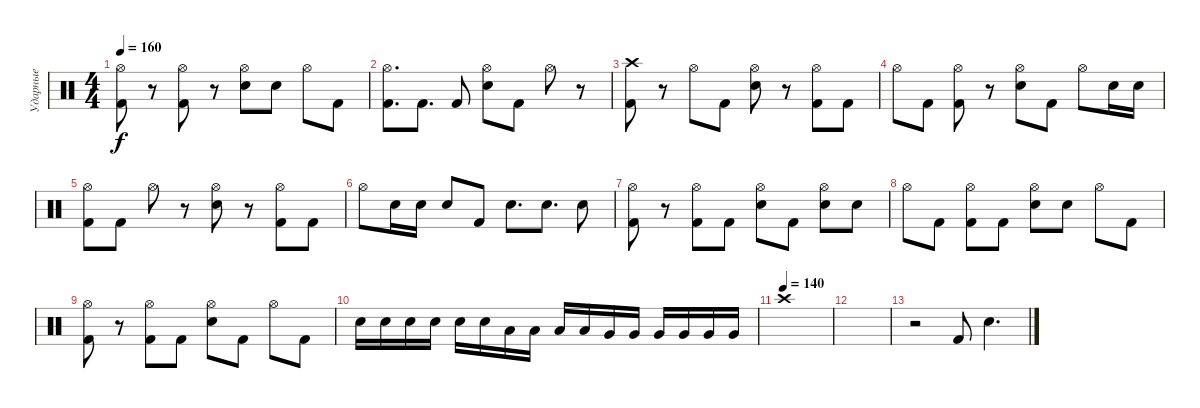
\track ("Ударные" "Ударные") {instrument percussion}
\staff {score}
\articulation defaults
\ts (4 4)
\tempo 160
\clef neutral
\ks c
("Hi-Hat (open)" "Kick (hit) 2").8{dy f} r.8 ("Hi-Hat (open)" "Kick (hit) 2").8 r.8 ("Hi-Hat (open)" "Electric Snare (hit)").8 "Electric Snare (hit)".8 "Hi-Hat (open)".8 "Kick (hit) 2".8 |
("Hi-Hat (open)" "Kick (hit) 2").8{d} "Kick (hit) 2".8{d} "Kick (hit) 2".8 ("Hi-Hat (open)" "Electric Snare (hit)").8 "Kick (hit) 2".8 "Hi-Hat (open)".8 r.8 |
("Crash high (hit)" "Kick (hit) 2").8 r.8 "Hi-Hat (open)".8 "Kick (hit) 2".8 ("Hi-Hat (open)" "Electric Snare (hit)").8 r.8 ("Hi-Hat (open)" "Kick (hit) 2").8 "Kick (hit) 2".8 |
"Hi-Hat (open)".8 "Kick (hit) 2".8 ("Hi-Hat (open)" "Kick (hit) 2").8 r.8 ("Hi-Hat (open)" "Electric Snare (hit)").8 "Kick (hit) 2".8 "Hi-Hat (open)".8 "Electric Snare (hit)".16 "Electric Snare (hit)".16 |
("Hi-Hat (open)" "Kick (hit) 2").8 "Kick (hit) 2".8 "Hi-Hat (open)".8 r.8 ("Hi-Hat (open)" "Electric Snare (hit)").8 r.8 ("Hi-Hat (open)" "Kick (hit) 2").8 "Kick (hit) 2".8 |
"Hi-Hat (open)".8 "Electric Snare (hit)".16 "Electric Snare (hit)".16 "Electric Snare (hit)".8 "Kick (hit) 2".8 "Electric Snare (hit)".8{d} "Electric Snare (hit)".8{d} "Electric Snare (hit)".8 |
("Hi-Hat (open)" "Kick (hit) 2").8 r.8 ("Hi-Hat (open)" "Kick (hit) 2").8 "Kick (hit) 2".8 ("Hi-Hat (open)" "Electric Snare (hit)").8 "Kick (hit) 2".8 ("Hi-Hat (open)" "Electric Snare (hit)").8 "Electric Snare (hit)".8 |
"Hi-Hat (open)".8 "Kick (hit) 2".8 ("Hi-Hat (open)" "Kick (hit) 2").8 "Kick (hit) 2".8 ("Hi-Hat (open)" "Electric Snare (hit)").8 "Electric Snare (hit)".8 "Hi-Hat (open)".8 "Kick (hit) 2".8 |
("Hi-Hat (open)" "Kick (hit) 2").8 r.8 ("Hi-Hat (open)" "Kick (hit) 2").8 "Kick (hit) 2".8 ("Hi-Hat (open)" "Electric Snare (hit)").8 "Kick (hit) 2".8 "Hi-Hat (open)".8 "Kick (hit) 2".8 |
"Electric Snare (hit)".16 "Electric Snare (hit)".16 "Electric Snare (hit)".16 "Electric Snare (hit)".16 "Electric Snare (hit)".16 "Electric Snare (hit)".16 "Low Tom (hit)".16 "Low Tom (hit)".16 "Low Tom (hit)".16 "Low Tom (hit)".16 "Very Low Tom (hit)".16 "Very Low Tom (hit)".16 "Very Low Tom (hit)".16 "Very Low Tom (hit)".16 "Very Low Tom (hit)".16 "Very Low Tom (hit)".16 |
\tempo (140)
"Crash high (hit)".1 |
|
r.2 "Kick (hit) 2".8 "Electric Snare (hit)".4{d}
